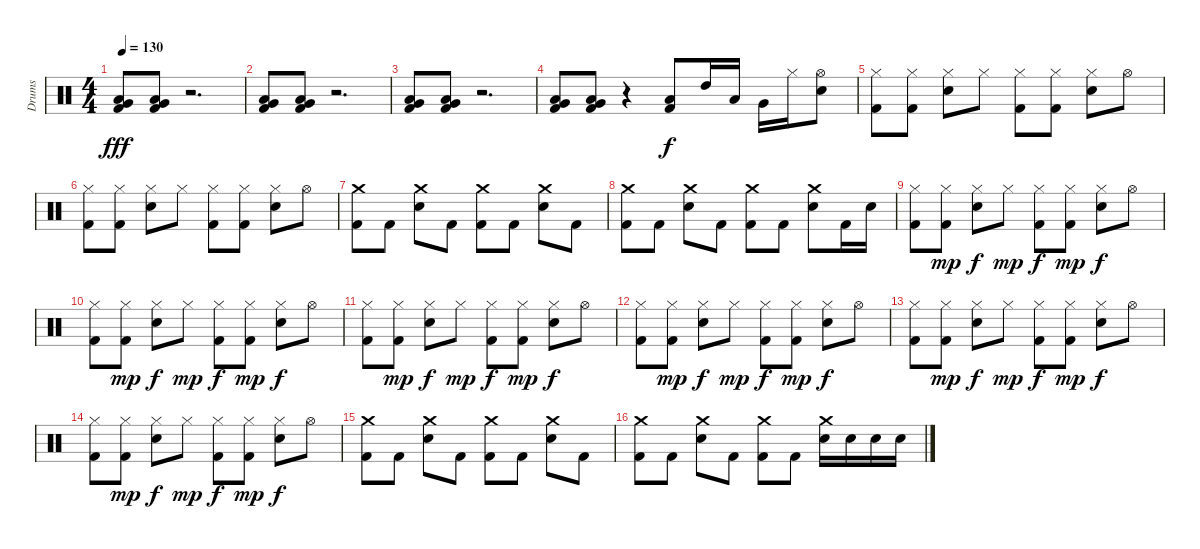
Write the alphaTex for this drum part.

\track ("Drums" "Drums") {instrument percussion}
\staff {score}
\articulation defaults
\ts (4 4)
\tempo 130
\clef neutral
\ks c
("Very Low Tom (hit)" "Low Tom (hit)" "Kick (hit) 2").8{dy fff} ("Very Low Tom (hit)" "Low Tom (hit)" "Kick (hit) 2").8 r.2{d} |
("Very Low Tom (hit)" "Low Tom (hit)" "Kick (hit) 2").8 ("Very Low Tom (hit)" "Low Tom (hit)" "Kick (hit) 2").8 r.2{d} |
("Very Low Tom (hit)" "Low Tom (hit)" "Kick (hit) 2").8 ("Very Low Tom (hit)" "Low Tom (hit)" "Kick (hit) 2").8 r.2{d} |
("Very Low Tom (hit)" "Low Tom (hit)" "Kick (hit) 2").8 ("Very Low Tom (hit)" "Low Tom (hit)" "Kick (hit) 2").8 r.4 ("Low Tom (hit)" "Kick (hit) 2").8{dy f} "High Tom (hit)".16 "Low Tom (hit)".16 "Very Low Tom (hit)".16 "Hi-Hat (closed)".16 ("Hi-Hat (open)" "Snare (hit) 2").8 |
("Hi-Hat (closed)" "Kick (hit) 2").8 ("Hi-Hat (closed)" "Kick (hit) 2").8 ("Hi-Hat (closed)" "Snare (hit) 2").8 "Hi-Hat (closed)".8 ("Hi-Hat (closed)" "Kick (hit) 2").8 ("Hi-Hat (closed)" "Kick (hit) 2").8 ("Hi-Hat (closed)" "Snare (hit) 2").8 "Hi-Hat (open)".8 |
("Hi-Hat (closed)" "Kick (hit) 2").8 ("Hi-Hat (closed)" "Kick (hit) 2").8 ("Hi-Hat (closed)" "Snare (hit) 2").8 "Hi-Hat (closed)".8 ("Hi-Hat (closed)" "Kick (hit) 2").8 ("Hi-Hat (closed)" "Kick (hit) 2").8 ("Hi-Hat (closed)" "Snare (hit) 2").8 "Hi-Hat (open)".8 |
("Crash medium (hit)" "Kick (hit) 2").8 "Kick (hit) 2".8 ("Crash medium (hit)" "Snare (hit) 2").8 "Kick (hit) 2".8 ("Crash medium (hit)" "Kick (hit) 2").8 "Kick (hit) 2".8 ("Crash medium (hit)" "Snare (hit) 2").8 "Kick (hit) 2".8 |
("Crash medium (hit)" "Kick (hit) 2").8 "Kick (hit) 2".8 ("Crash medium (hit)" "Snare (hit) 2").8 "Kick (hit) 2".8 ("Crash medium (hit)" "Kick (hit) 2").8 "Kick (hit) 2".8 ("Crash medium (hit)" "Snare (hit) 2").8 "Kick (hit) 2".16 "Snare (hit) 2".16 |
("Hi-Hat (closed)" "Kick (hit) 2").8 ("Hi-Hat (closed)" "Kick (hit) 2").8{dy mp} ("Hi-Hat (closed)" "Snare (hit) 2").8{dy f} "Hi-Hat (closed)".8{dy mp} ("Hi-Hat (closed)" "Kick (hit) 2").8{dy f} ("Hi-Hat (closed)" "Kick (hit) 2").8{dy mp} ("Hi-Hat (closed)" "Snare (hit) 2").8{dy f} "Hi-Hat (open)".8 |
("Hi-Hat (closed)" "Kick (hit) 2").8 ("Hi-Hat (closed)" "Kick (hit) 2").8{dy mp} ("Hi-Hat (closed)" "Snare (hit) 2").8{dy f} "Hi-Hat (closed)".8{dy mp} ("Hi-Hat (closed)" "Kick (hit) 2").8{dy f} ("Hi-Hat (closed)" "Kick (hit) 2").8{dy mp} ("Hi-Hat (closed)" "Snare (hit) 2").8{dy f} "Hi-Hat (open)".8 |
("Hi-Hat (closed)" "Kick (hit) 2").8 ("Hi-Hat (closed)" "Kick (hit) 2").8{dy mp} ("Hi-Hat (closed)" "Snare (hit) 2").8{dy f} "Hi-Hat (closed)".8{dy mp} ("Hi-Hat (closed)" "Kick (hit) 2").8{dy f} ("Hi-Hat (closed)" "Kick (hit) 2").8{dy mp} ("Hi-Hat (closed)" "Snare (hit) 2").8{dy f} "Hi-Hat (open)".8 |
("Hi-Hat (closed)" "Kick (hit) 2").8 ("Hi-Hat (closed)" "Kick (hit) 2").8{dy mp} ("Hi-Hat (closed)" "Snare (hit) 2").8{dy f} "Hi-Hat (closed)".8{dy mp} ("Hi-Hat (closed)" "Kick (hit) 2").8{dy f} ("Hi-Hat (closed)" "Kick (hit) 2").8{dy mp} ("Hi-Hat (closed)" "Snare (hit) 2").8{dy f} "Hi-Hat (open)".8 |
("Hi-Hat (closed)" "Kick (hit) 2").8 ("Hi-Hat (closed)" "Kick (hit) 2").8{dy mp} ("Hi-Hat (closed)" "Snare (hit) 2").8{dy f} "Hi-Hat (closed)".8{dy mp} ("Hi-Hat (closed)" "Kick (hit) 2").8{dy f} ("Hi-Hat (closed)" "Kick (hit) 2").8{dy mp} ("Hi-Hat (closed)" "Snare (hit) 2").8{dy f} "Hi-Hat (open)".8 |
("Hi-Hat (closed)" "Kick (hit) 2").8 ("Hi-Hat (closed)" "Kick (hit) 2").8{dy mp} ("Hi-Hat (closed)" "Snare (hit) 2").8{dy f} "Hi-Hat (closed)".8{dy mp} ("Hi-Hat (closed)" "Kick (hit) 2").8{dy f} ("Hi-Hat (closed)" "Kick (hit) 2").8{dy mp} ("Hi-Hat (closed)" "Snare (hit) 2").8{dy f} "Hi-Hat (open)".8 |
("Crash medium (hit)" "Kick (hit) 2").8 "Kick (hit) 2".8 ("Crash medium (hit)" "Snare (hit) 2").8 "Kick (hit) 2".8 ("Crash medium (hit)" "Kick (hit) 2").8 "Kick (hit) 2".8 ("Crash medium (hit)" "Snare (hit) 2").8 "Kick (hit) 2".8 |
("Crash medium (hit)" "Kick (hit) 2").8 "Kick (hit) 2".8 ("Crash medium (hit)" "Snare (hit) 2").8 "Kick (hit) 2".8 ("Crash medium (hit)" "Kick (hit) 2").8 "Kick (hit) 2".8 ("Crash medium (hit)" "Snare (hit) 2").16 "Snare (hit) 2".16 "Snare (hit) 2".16 "Snare (hit) 2".16
